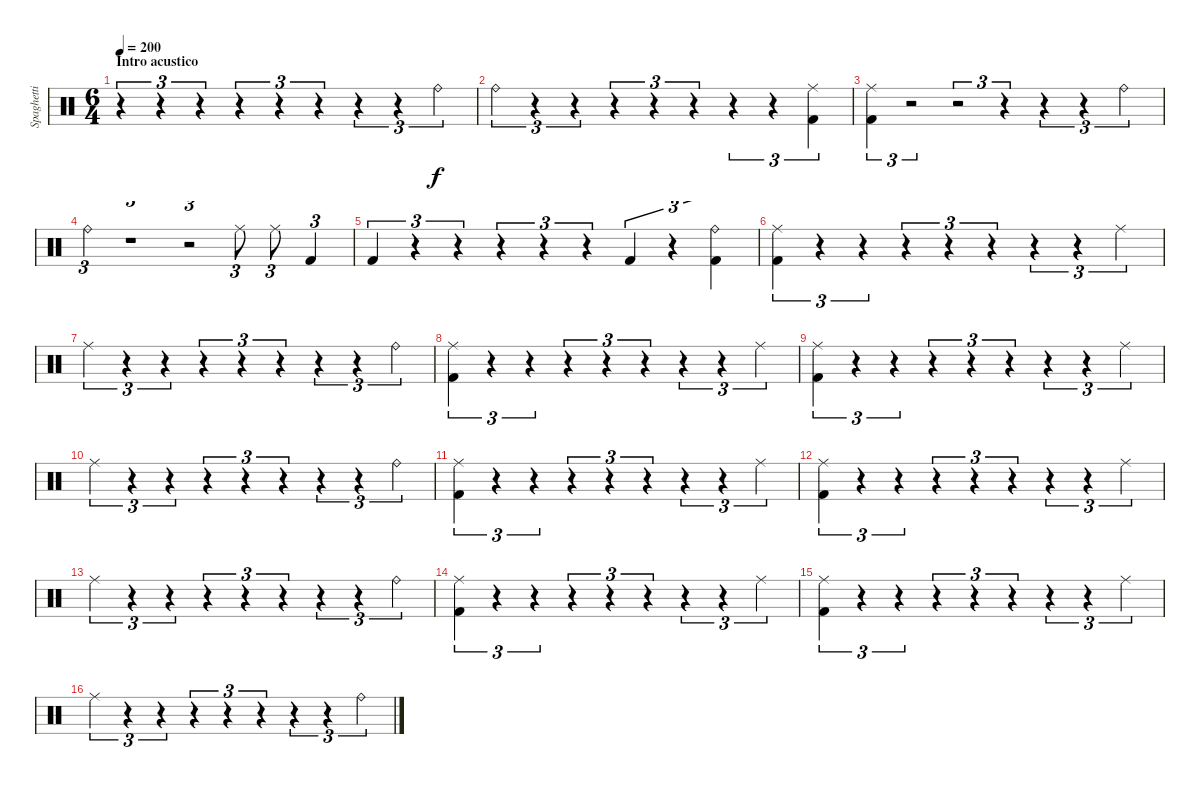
\track ("Spaghetti" "Spaghetti") {instrument percussion}
\staff {score}
\articulation defaults
\ts (6 4)
\section ("" "Intro acustico")
\tempo 200
\clef neutral
\ks c
r.4{tu (3 2) dy f} r.4{tu (3 2)} r.4{tu (3 2)} r.4{tu (3 2)} r.4{tu (3 2)} r.4{tu (3 2)} r.4{tu (3 2)} r.4{tu (3 2)} "Ride (bell)".4{tu (3 2)} |
"Ride (bell)".4{tu (3 2)} r.4{tu (3 2)} r.4{tu (3 2)} r.4{tu (3 2)} r.4{tu (3 2)} r.4{tu (3 2)} r.4{tu (3 2)} r.4{tu (3 2)} ("Ride (middle)" "Kick (hit) 2").4{tu (3 2)} |
("Ride (middle)" "Kick (hit) 2").4{tu (3 2)} r.2{tu (3 2)} r.2{tu (3 2)} r.4{tu (3 2)} r.4{tu (3 2)} r.4{tu (3 2)} "Ride (bell)".4{tu (3 2)} |
"Ride (bell)".4{tu (3 2)} r.1{tu (3 2)} r.2{tu (3 2)} "Ride (middle)".8{tu (3 2)} "Ride (middle)".8{tu (3 2)} "Kick (hit) 2".4{tu (3 2)} |
"Kick (hit) 2".4{tu (3 2)} r.4{tu (3 2)} r.4{tu (3 2)} r.4{tu (3 2)} r.4{tu (3 2)} r.4{tu (3 2)} "Kick (hit) 2".4{tu (3 2)} r.4{tu (3 2)} ("Ride (bell)" "Kick (hit) 2").4{tu (3 2)} |
("Ride (middle)" "Kick (hit) 2").4{tu (3 2)} r.4{tu (3 2)} r.4{tu (3 2)} r.4{tu (3 2)} r.4{tu (3 2)} r.4{tu (3 2)} r.4{tu (3 2)} r.4{tu (3 2)} "Ride (middle)".4{tu (3 2)} |
"Ride (middle)".4{tu (3 2)} r.4{tu (3 2)} r.4{tu (3 2)} r.4{tu (3 2)} r.4{tu (3 2)} r.4{tu (3 2)} r.4{tu (3 2)} r.4{tu (3 2)} "Ride (bell)".4{tu (3 2)} |
("Kick (hit) 2" "Ride (middle)").4{tu (3 2)} r.4{tu (3 2)} r.4{tu (3 2)} r.4{tu (3 2)} r.4{tu (3 2)} r.4{tu (3 2)} r.4{tu (3 2)} r.4{tu (3 2)} "Ride (middle)".4{tu (3 2)} |
("Ride (middle)" "Kick (hit) 2").4{tu (3 2)} r.4{tu (3 2)} r.4{tu (3 2)} r.4{tu (3 2)} r.4{tu (3 2)} r.4{tu (3 2)} r.4{tu (3 2)} r.4{tu (3 2)} "Ride (middle)".4{tu (3 2)} |
"Ride (middle)".4{tu (3 2)} r.4{tu (3 2)} r.4{tu (3 2)} r.4{tu (3 2)} r.4{tu (3 2)} r.4{tu (3 2)} r.4{tu (3 2)} r.4{tu (3 2)} "Ride (bell)".4{tu (3 2)} |
("Kick (hit) 2" "Ride (middle)").4{tu (3 2)} r.4{tu (3 2)} r.4{tu (3 2)} r.4{tu (3 2)} r.4{tu (3 2)} r.4{tu (3 2)} r.4{tu (3 2)} r.4{tu (3 2)} "Ride (middle)".4{tu (3 2)} |
("Ride (middle)" "Kick (hit) 2").4{tu (3 2)} r.4{tu (3 2)} r.4{tu (3 2)} r.4{tu (3 2)} r.4{tu (3 2)} r.4{tu (3 2)} r.4{tu (3 2)} r.4{tu (3 2)} "Ride (middle)".4{tu (3 2)} |
"Ride (middle)".4{tu (3 2)} r.4{tu (3 2)} r.4{tu (3 2)} r.4{tu (3 2)} r.4{tu (3 2)} r.4{tu (3 2)} r.4{tu (3 2)} r.4{tu (3 2)} "Ride (bell)".4{tu (3 2)} |
("Kick (hit) 2" "Ride (middle)").4{tu (3 2)} r.4{tu (3 2)} r.4{tu (3 2)} r.4{tu (3 2)} r.4{tu (3 2)} r.4{tu (3 2)} r.4{tu (3 2)} r.4{tu (3 2)} "Ride (middle)".4{tu (3 2)} |
("Ride (middle)" "Kick (hit) 2").4{tu (3 2)} r.4{tu (3 2)} r.4{tu (3 2)} r.4{tu (3 2)} r.4{tu (3 2)} r.4{tu (3 2)} r.4{tu (3 2)} r.4{tu (3 2)} "Ride (middle)".4{tu (3 2)} |
"Ride (middle)".4{tu (3 2)} r.4{tu (3 2)} r.4{tu (3 2)} r.4{tu (3 2)} r.4{tu (3 2)} r.4{tu (3 2)} r.4{tu (3 2)} r.4{tu (3 2)} "Ride (bell)".4{tu (3 2)}
